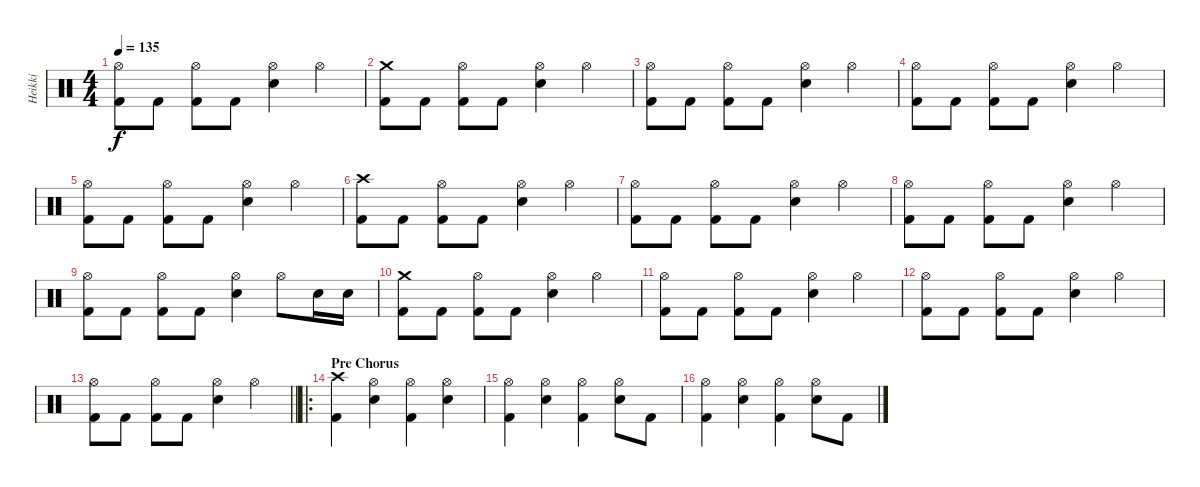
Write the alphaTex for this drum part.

\track ("Heikki" "Heikki") {instrument percussion}
\staff {score}
\articulation defaults
\ts (4 4)
\tempo 135
\clef neutral
\ks c
("Hi-Hat (open)" "Kick (hit) 2").8{dy f} "Kick (hit) 2".8 ("Hi-Hat (open)" "Kick (hit) 2").8 "Kick (hit) 2".8 ("Hi-Hat (open)" "Electric Snare (hit)").4 "Hi-Hat (open)".4 |
("Crash medium (hit)" "Kick (hit) 2").8 "Kick (hit) 2".8 ("Hi-Hat (open)" "Kick (hit) 2").8 "Kick (hit) 2".8 ("Hi-Hat (open)" "Electric Snare (hit)").4 "Hi-Hat (open)".4 |
("Hi-Hat (open)" "Kick (hit) 2").8 "Kick (hit) 2".8 ("Hi-Hat (open)" "Kick (hit) 2").8 "Kick (hit) 2".8 ("Hi-Hat (open)" "Electric Snare (hit)").4 "Hi-Hat (open)".4 |
("Hi-Hat (open)" "Kick (hit) 2").8 "Kick (hit) 2".8 ("Hi-Hat (open)" "Kick (hit) 2").8 "Kick (hit) 2".8 ("Hi-Hat (open)" "Electric Snare (hit)").4 "Hi-Hat (open)".4 |
("Hi-Hat (open)" "Kick (hit) 2").8 "Kick (hit) 2".8 ("Hi-Hat (open)" "Kick (hit) 2").8 "Kick (hit) 2".8 ("Hi-Hat (open)" "Electric Snare (hit)").4 "Hi-Hat (open)".4 |
("Crash high (hit)" "Kick (hit) 2").8 "Kick (hit) 2".8 ("Hi-Hat (open)" "Kick (hit) 2").8 "Kick (hit) 2".8 ("Hi-Hat (open)" "Electric Snare (hit)").4 "Hi-Hat (open)".4 |
("Hi-Hat (open)" "Kick (hit) 2").8 "Kick (hit) 2".8 ("Hi-Hat (open)" "Kick (hit) 2").8 "Kick (hit) 2".8 ("Hi-Hat (open)" "Electric Snare (hit)").4 "Hi-Hat (open)".4 |
("Hi-Hat (open)" "Kick (hit) 2").8 "Kick (hit) 2".8 ("Hi-Hat (open)" "Kick (hit) 2").8 "Kick (hit) 2".8 ("Hi-Hat (open)" "Electric Snare (hit)").4 "Hi-Hat (open)".4 |
("Hi-Hat (open)" "Kick (hit) 2").8 "Kick (hit) 2".8 ("Hi-Hat (open)" "Kick (hit) 2").8 "Kick (hit) 2".8 ("Hi-Hat (open)" "Electric Snare (hit)").4 "Hi-Hat (open)".8 "Electric Snare (hit)".16 "Electric Snare (hit)".16 |
("Crash medium (hit)" "Kick (hit) 2").8 "Kick (hit) 2".8 ("Hi-Hat (open)" "Kick (hit) 2").8 "Kick (hit) 2".8 ("Hi-Hat (open)" "Electric Snare (hit)").4 "Hi-Hat (open)".4 |
("Hi-Hat (open)" "Kick (hit) 2").8 "Kick (hit) 2".8 ("Hi-Hat (open)" "Kick (hit) 2").8 "Kick (hit) 2".8 ("Hi-Hat (open)" "Electric Snare (hit)").4 "Hi-Hat (open)".4 |
("Hi-Hat (open)" "Kick (hit) 2").8 "Kick (hit) 2".8 ("Hi-Hat (open)" "Kick (hit) 2").8 "Kick (hit) 2".8 ("Hi-Hat (open)" "Electric Snare (hit)").4 "Hi-Hat (open)".4 |
\barLineRight lightlight
("Hi-Hat (open)" "Kick (hit) 2").8 "Kick (hit) 2".8 ("Hi-Hat (open)" "Kick (hit) 2").8 "Kick (hit) 2".8 ("Hi-Hat (open)" "Electric Snare (hit)").4 "Hi-Hat (open)".4 |
\ro
\section ("" "Pre Chorus")
("Crash high (hit)" "Kick (hit) 2").4 ("Hi-Hat (open)" "Electric Snare (hit)").4 ("Hi-Hat (open)" "Kick (hit) 2").4 ("Hi-Hat (open)" "Electric Snare (hit)").4 |
("Hi-Hat (open)" "Kick (hit) 2").4 ("Hi-Hat (open)" "Electric Snare (hit)").4 ("Hi-Hat (open)" "Kick (hit) 2").4 ("Hi-Hat (open)" "Electric Snare (hit)").8 "Kick (hit) 2".8 |
("Hi-Hat (open)" "Kick (hit) 2").4 ("Hi-Hat (open)" "Electric Snare (hit)").4 ("Hi-Hat (open)" "Kick (hit) 2").4 ("Hi-Hat (open)" "Electric Snare (hit)").8 "Kick (hit) 2".8
